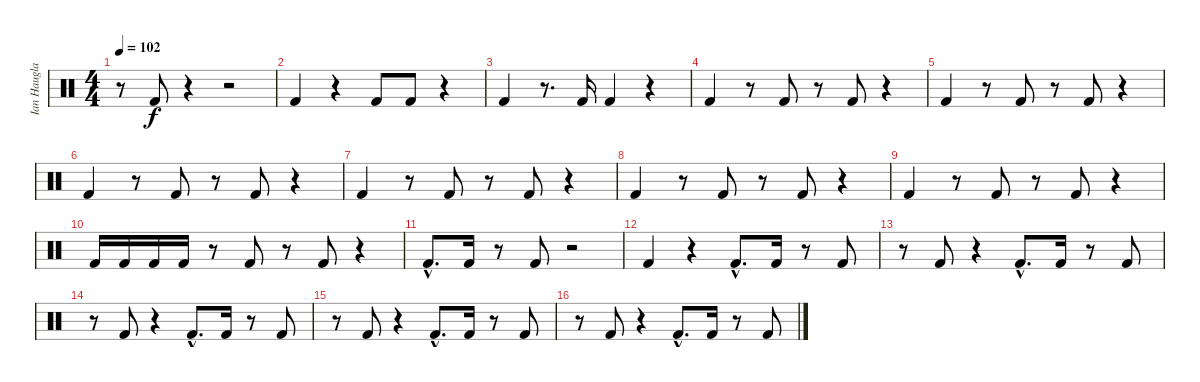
\track ("Ian Haugland Drums" "Ian Haugla") {instrument percussion}
\staff {score}
\articulation defaults
\ts (4 4)
\tempo 102
\clef neutral
\ks c
r.8{dy f} "Kick (hit) 2".8 r.4 r.2 |
"Kick (hit) 2".4 r.4 "Kick (hit) 2".8 "Kick (hit) 2".8 r.4 |
"Kick (hit) 2".4 r.8{d} "Kick (hit) 2".16 "Kick (hit) 2".4 r.4 |
"Kick (hit) 2".4 r.8 "Kick (hit) 2".8 r.8 "Kick (hit) 2".8 r.4 |
"Kick (hit) 2".4 r.8 "Kick (hit) 2".8 r.8 "Kick (hit) 2".8 r.4 |
"Kick (hit) 2".4 r.8 "Kick (hit) 2".8 r.8 "Kick (hit) 2".8 r.4 |
"Kick (hit) 2".4 r.8 "Kick (hit) 2".8 r.8 "Kick (hit) 2".8 r.4 |
"Kick (hit) 2".4 r.8 "Kick (hit) 2".8 r.8 "Kick (hit) 2".8 r.4 |
"Kick (hit) 2".4 r.8 "Kick (hit) 2".8 r.8 "Kick (hit) 2".8 r.4 |
"Kick (hit) 2".16 "Kick (hit) 2".16 "Kick (hit) 2".16 "Kick (hit) 2".16 r.8 "Kick (hit) 2".8 r.8 "Kick (hit) 2".8 r.4 |
"Kick (hit) 2"{hac}.8{d} "Kick (hit) 2".16 r.8 "Kick (hit) 2".8 r.2 |
"Kick (hit) 2".4 r.4 "Kick (hit) 2"{hac}.8{d} "Kick (hit) 2".16 r.8 "Kick (hit) 2".8 |
r.8 "Kick (hit) 2".8 r.4 "Kick (hit) 2"{hac}.8{d} "Kick (hit) 2".16 r.8 "Kick (hit) 2".8 |
r.8 "Kick (hit) 2".8 r.4 "Kick (hit) 2"{hac}.8{d} "Kick (hit) 2".16 r.8 "Kick (hit) 2".8 |
r.8 "Kick (hit) 2".8 r.4 "Kick (hit) 2"{hac}.8{d} "Kick (hit) 2".16 r.8 "Kick (hit) 2".8 |
r.8 "Kick (hit) 2".8 r.4 "Kick (hit) 2"{hac}.8{d} "Kick (hit) 2".16 r.8 "Kick (hit) 2".8
